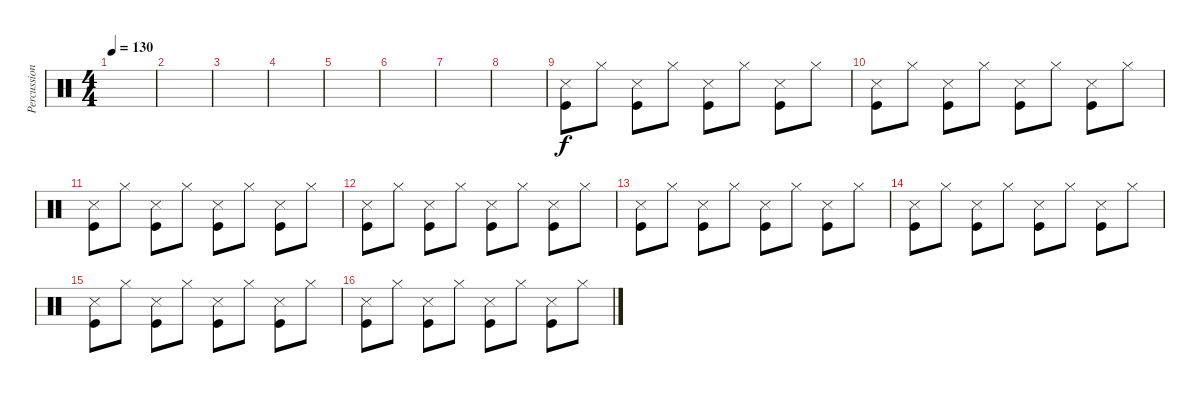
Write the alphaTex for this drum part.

\track ("Percussions" "Percussion") {instrument percussion}
\staff {score}
\articulation defaults
\ts (4 4)
\tempo 130
\clef neutral
\ks c
|
|
|
|
|
|
|
|
("Snare (side stick) 3" "Kick (hit)").8 "Hi-Hat (closed)".8 ("Snare (side stick) 3" "Kick (hit)").8 "Hi-Hat (closed)".8 ("Snare (side stick) 3" "Kick (hit)").8 "Hi-Hat (closed)".8 ("Snare (side stick) 3" "Kick (hit)").8 "Hi-Hat (closed)".8 |
("Snare (side stick) 3" "Kick (hit)").8 "Hi-Hat (closed)".8 ("Snare (side stick) 3" "Kick (hit)").8 "Hi-Hat (closed)".8 ("Snare (side stick) 3" "Kick (hit)").8 "Hi-Hat (closed)".8 ("Snare (side stick) 3" "Kick (hit)").8 "Hi-Hat (closed)".8 |
("Snare (side stick) 3" "Kick (hit)").8 "Hi-Hat (closed)".8 ("Snare (side stick) 3" "Kick (hit)").8 "Hi-Hat (closed)".8 ("Snare (side stick) 3" "Kick (hit)").8 "Hi-Hat (closed)".8 ("Snare (side stick) 3" "Kick (hit)").8 "Hi-Hat (closed)".8 |
("Snare (side stick) 3" "Kick (hit)").8 "Hi-Hat (closed)".8 ("Snare (side stick) 3" "Kick (hit)").8 "Hi-Hat (closed)".8 ("Snare (side stick) 3" "Kick (hit)").8 "Hi-Hat (closed)".8 ("Snare (side stick) 3" "Kick (hit)").8 "Hi-Hat (closed)".8 |
("Snare (side stick) 3" "Kick (hit)").8 "Hi-Hat (closed)".8 ("Snare (side stick) 3" "Kick (hit)").8 "Hi-Hat (closed)".8 ("Snare (side stick) 3" "Kick (hit)").8 "Hi-Hat (closed)".8 ("Snare (side stick) 3" "Kick (hit)").8 "Hi-Hat (closed)".8 |
("Snare (side stick) 3" "Kick (hit)").8 "Hi-Hat (closed)".8 ("Snare (side stick) 3" "Kick (hit)").8 "Hi-Hat (closed)".8 ("Snare (side stick) 3" "Kick (hit)").8 "Hi-Hat (closed)".8 ("Snare (side stick) 3" "Kick (hit)").8 "Hi-Hat (closed)".8 |
("Snare (side stick) 3" "Kick (hit)").8 "Hi-Hat (closed)".8 ("Snare (side stick) 3" "Kick (hit)").8 "Hi-Hat (closed)".8 ("Snare (side stick) 3" "Kick (hit)").8 "Hi-Hat (closed)".8 ("Snare (side stick) 3" "Kick (hit)").8 "Hi-Hat (closed)".8 |
("Snare (side stick) 3" "Kick (hit)").8 "Hi-Hat (closed)".8 ("Snare (side stick) 3" "Kick (hit)").8 "Hi-Hat (closed)".8 ("Snare (side stick) 3" "Kick (hit)").8 "Hi-Hat (closed)".8 ("Snare (side stick) 3" "Kick (hit)").8 "Hi-Hat (closed)".8
